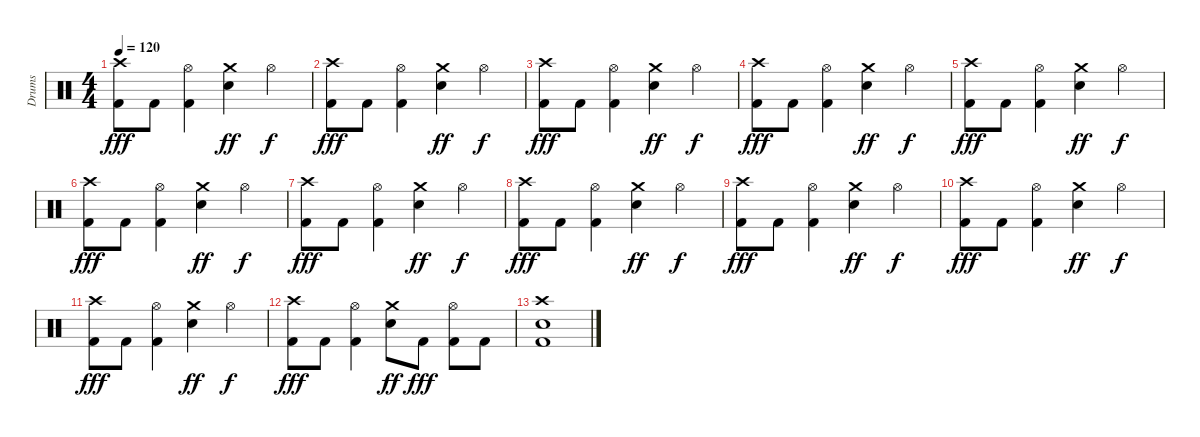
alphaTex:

\track ("Drums" "Drums") {instrument percussion}
\staff {score}
\articulation defaults
\ts (4 4)
\tempo 120
\clef neutral
\ks c
("Crash high (hit)" "Kick (hit) 2").8{dy fff} "Kick (hit) 2".8 ("Hi-Hat (open)" "Kick (hit) 2").4 ("Crash medium (hit)" "Snare (hit) 2").4{dy ff} "Hi-Hat (open)".4{dy f} |
("Crash high (hit)" "Kick (hit) 2").8{dy fff} "Kick (hit) 2".8 ("Hi-Hat (open)" "Kick (hit) 2").4 ("Crash medium (hit)" "Snare (hit) 2").4{dy ff} "Hi-Hat (open)".4{dy f} |
("Crash high (hit)" "Kick (hit) 2").8{dy fff} "Kick (hit) 2".8 ("Hi-Hat (open)" "Kick (hit) 2").4 ("Crash medium (hit)" "Snare (hit) 2").4{dy ff} "Hi-Hat (open)".4{dy f} |
("Crash high (hit)" "Kick (hit) 2").8{dy fff} "Kick (hit) 2".8 ("Hi-Hat (open)" "Kick (hit) 2").4 ("Crash medium (hit)" "Snare (hit) 2").4{dy ff} "Hi-Hat (open)".4{dy f} |
("Crash high (hit)" "Kick (hit) 2").8{dy fff} "Kick (hit) 2".8 ("Hi-Hat (open)" "Kick (hit) 2").4 ("Crash medium (hit)" "Snare (hit) 2").4{dy ff} "Hi-Hat (open)".4{dy f} |
("Crash high (hit)" "Kick (hit) 2").8{dy fff} "Kick (hit) 2".8 ("Hi-Hat (open)" "Kick (hit) 2").4 ("Crash medium (hit)" "Snare (hit) 2").4{dy ff} "Hi-Hat (open)".4{dy f} |
("Crash high (hit)" "Kick (hit) 2").8{dy fff} "Kick (hit) 2".8 ("Hi-Hat (open)" "Kick (hit) 2").4 ("Crash medium (hit)" "Snare (hit) 2").4{dy ff} "Hi-Hat (open)".4{dy f} |
("Crash high (hit)" "Kick (hit) 2").8{dy fff} "Kick (hit) 2".8 ("Hi-Hat (open)" "Kick (hit) 2").4 ("Crash medium (hit)" "Snare (hit) 2").4{dy ff} "Hi-Hat (open)".4{dy f} |
("Crash high (hit)" "Kick (hit) 2").8{dy fff} "Kick (hit) 2".8 ("Hi-Hat (open)" "Kick (hit) 2").4 ("Crash medium (hit)" "Snare (hit) 2").4{dy ff} "Hi-Hat (open)".4{dy f} |
("Crash high (hit)" "Kick (hit) 2").8{dy fff} "Kick (hit) 2".8 ("Hi-Hat (open)" "Kick (hit) 2").4 ("Crash medium (hit)" "Snare (hit) 2").4{dy ff} "Hi-Hat (open)".4{dy f} |
("Crash high (hit)" "Kick (hit) 2").8{dy fff} "Kick (hit) 2".8 ("Hi-Hat (open)" "Kick (hit) 2").4 ("Crash medium (hit)" "Snare (hit) 2").4{dy ff} "Hi-Hat (open)".4{dy f} |
("Crash high (hit)" "Kick (hit) 2").8{dy fff} "Kick (hit) 2".8 ("Hi-Hat (open)" "Kick (hit) 2").4 ("Crash medium (hit)" "Snare (hit) 2").8{dy ff} "Kick (hit) 2".8{dy fff} ("Hi-Hat (open)" "Kick (hit) 2").8 "Kick (hit) 2".8 |
("Crash high (hit)" "Snare (hit) 2" "Kick (hit) 2").1
